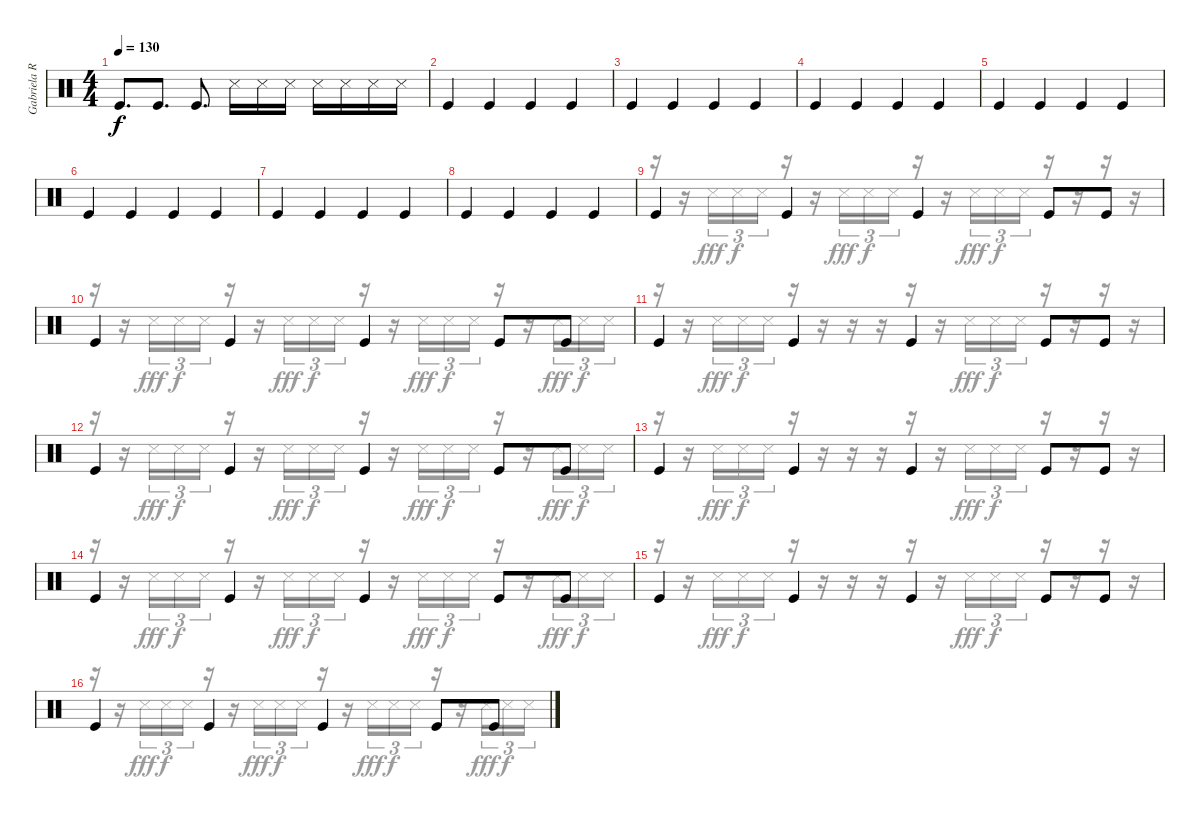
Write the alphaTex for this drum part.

\track ("Gabriela Rythmics" "Gabriela R") {instrument percussion}
\staff {score}
\articulation defaults
\voice
\ts (4 4)
\tempo 130
\clef neutral
\ks c "Kick (hit)".8{d dy f} "Kick (hit)".8{d} "Kick (hit)".8{d} "Snare (side stick) 3".16 "Snare (side stick) 3".16 "Snare (side stick) 3".16 "Snare (side stick) 3".16 "Snare (side stick) 3".16 "Snare (side stick) 3".16 "Snare (side stick) 3".16
|
"Kick (hit)".4 "Kick (hit)".4 "Kick (hit)".4 "Kick (hit)".4 |
"Kick (hit)".4 "Kick (hit)".4 "Kick (hit)".4 "Kick (hit)".4 |
"Kick (hit)".4 "Kick (hit)".4 "Kick (hit)".4 "Kick (hit)".4 |
"Kick (hit)".4 "Kick (hit)".4 "Kick (hit)".4 "Kick (hit)".4 |
"Kick (hit)".4 "Kick (hit)".4 "Kick (hit)".4 "Kick (hit)".4 |
"Kick (hit)".4 "Kick (hit)".4 "Kick (hit)".4 "Kick (hit)".4 |
"Kick (hit)".4 "Kick (hit)".4 "Kick (hit)".4 "Kick (hit)".4 |
"Kick (hit)".4 "Kick (hit)".4 "Kick (hit)".4 "Kick (hit)".8 "Kick (hit)".8 |
"Kick (hit)".4 "Kick (hit)".4 "Kick (hit)".4 "Kick (hit)".8 "Kick (hit)".8 |
"Kick (hit)".4 "Kick (hit)".4 "Kick (hit)".4 "Kick (hit)".8 "Kick (hit)".8 |
"Kick (hit)".4 "Kick (hit)".4 "Kick (hit)".4 "Kick (hit)".8 "Kick (hit)".8 |
"Kick (hit)".4 "Kick (hit)".4 "Kick (hit)".4 "Kick (hit)".8 "Kick (hit)".8 |
"Kick (hit)".4 "Kick (hit)".4 "Kick (hit)".4 "Kick (hit)".8 "Kick (hit)".8 |
"Kick (hit)".4 "Kick (hit)".4 "Kick (hit)".4 "Kick (hit)".8 "Kick (hit)".8 |
"Kick (hit)".4 "Kick (hit)".4 "Kick (hit)".4 "Kick (hit)".8 "Kick (hit)".8
\voice
\clef neutral
\ottava regular
\simile none
\ks c
|
|
|
|
|
|
|
|
r.16 r.16 "Snare (side stick) 3".16{tu (3 2) dy fff} "Snare (side stick) 3".16{tu (3 2) dy f} "Snare (side stick) 3".16{tu (3 2)} r.16 r.16 "Snare (side stick) 3".16{tu (3 2) dy fff} "Snare (side stick) 3".16{tu (3 2) dy f} "Snare (side stick) 3".16{tu (3 2)} r.16 r.16 "Snare (side stick) 3".16{tu (3 2) dy fff} "Snare (side stick) 3".16{tu (3 2) dy f} "Snare (side stick) 3".16{tu (3 2)} r.16 r.16 r.16 r.16 |
r.16 r.16 "Snare (side stick) 3".16{tu (3 2) dy fff} "Snare (side stick) 3".16{tu (3 2) dy f} "Snare (side stick) 3".16{tu (3 2)} r.16 r.16 "Snare (side stick) 3".16{tu (3 2) dy fff} "Snare (side stick) 3".16{tu (3 2) dy f} "Snare (side stick) 3".16{tu (3 2)} r.16 r.16 "Snare (side stick) 3".16{tu (3 2) dy fff} "Snare (side stick) 3".16{tu (3 2) dy f} "Snare (side stick) 3".16{tu (3 2)} r.16 r.16 "Snare (side stick) 3".16{tu (3 2) dy fff} "Snare (side stick) 3".16{tu (3 2) dy f} "Snare (side stick) 3".16{tu (3 2)} |
r.16 r.16 "Snare (side stick) 3".16{tu (3 2) dy fff} "Snare (side stick) 3".16{tu (3 2) dy f} "Snare (side stick) 3".16{tu (3 2)} r.16 r.16 r.16 r.16 r.16 r.16 "Snare (side stick) 3".16{tu (3 2) dy fff} "Snare (side stick) 3".16{tu (3 2) dy f} "Snare (side stick) 3".16{tu (3 2)} r.16 r.16 r.16 r.16 |
r.16 r.16 "Snare (side stick) 3".16{tu (3 2) dy fff} "Snare (side stick) 3".16{tu (3 2) dy f} "Snare (side stick) 3".16{tu (3 2)} r.16 r.16 "Snare (side stick) 3".16{tu (3 2) dy fff} "Snare (side stick) 3".16{tu (3 2) dy f} "Snare (side stick) 3".16{tu (3 2)} r.16 r.16 "Snare (side stick) 3".16{tu (3 2) dy fff} "Snare (side stick) 3".16{tu (3 2) dy f} "Snare (side stick) 3".16{tu (3 2)} r.16 r.16 "Snare (side stick) 3".16{tu (3 2) dy fff} "Snare (side stick) 3".16{tu (3 2) dy f} "Snare (side stick) 3".16{tu (3 2)} |
r.16 r.16 "Snare (side stick) 3".16{tu (3 2) dy fff} "Snare (side stick) 3".16{tu (3 2) dy f} "Snare (side stick) 3".16{tu (3 2)} r.16 r.16 r.16 r.16 r.16 r.16 "Snare (side stick) 3".16{tu (3 2) dy fff} "Snare (side stick) 3".16{tu (3 2) dy f} "Snare (side stick) 3".16{tu (3 2)} r.16 r.16 r.16 r.16 |
r.16 r.16 "Snare (side stick) 3".16{tu (3 2) dy fff} "Snare (side stick) 3".16{tu (3 2) dy f} "Snare (side stick) 3".16{tu (3 2)} r.16 r.16 "Snare (side stick) 3".16{tu (3 2) dy fff} "Snare (side stick) 3".16{tu (3 2) dy f} "Snare (side stick) 3".16{tu (3 2)} r.16 r.16 "Snare (side stick) 3".16{tu (3 2) dy fff} "Snare (side stick) 3".16{tu (3 2) dy f} "Snare (side stick) 3".16{tu (3 2)} r.16 r.16 "Snare (side stick) 3".16{tu (3 2) dy fff} "Snare (side stick) 3".16{tu (3 2) dy f} "Snare (side stick) 3".16{tu (3 2)} |
r.16 r.16 "Snare (side stick) 3".16{tu (3 2) dy fff} "Snare (side stick) 3".16{tu (3 2) dy f} "Snare (side stick) 3".16{tu (3 2)} r.16 r.16 r.16 r.16 r.16 r.16 "Snare (side stick) 3".16{tu (3 2) dy fff} "Snare (side stick) 3".16{tu (3 2) dy f} "Snare (side stick) 3".16{tu (3 2)} r.16 r.16 r.16 r.16 |
r.16 r.16 "Snare (side stick) 3".16{tu (3 2) dy fff} "Snare (side stick) 3".16{tu (3 2) dy f} "Snare (side stick) 3".16{tu (3 2)} r.16 r.16 "Snare (side stick) 3".16{tu (3 2) dy fff} "Snare (side stick) 3".16{tu (3 2) dy f} "Snare (side stick) 3".16{tu (3 2)} r.16 r.16 "Snare (side stick) 3".16{tu (3 2) dy fff} "Snare (side stick) 3".16{tu (3 2) dy f} "Snare (side stick) 3".16{tu (3 2)} r.16 r.16 "Snare (side stick) 3".16{tu (3 2) dy fff} "Snare (side stick) 3".16{tu (3 2) dy f} "Snare (side stick) 3".16{tu (3 2)}
